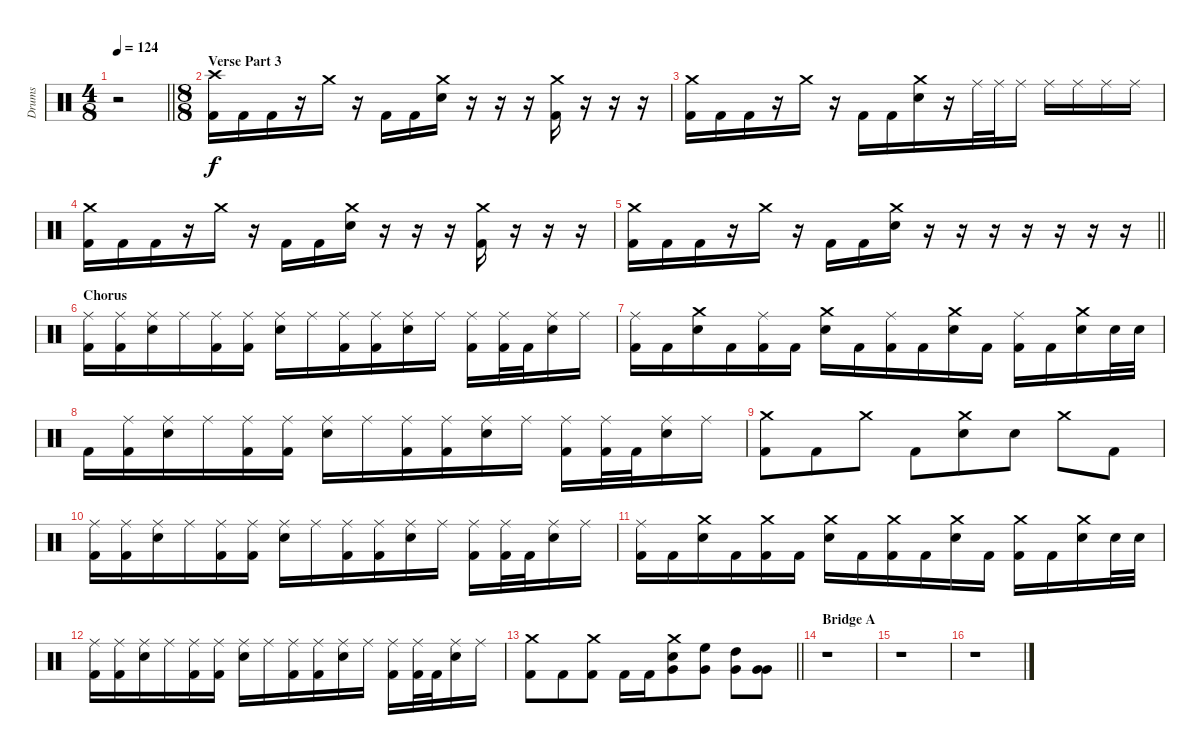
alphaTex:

\track ("Drums" "Drums") {instrument percussion}
\staff {score}
\articulation defaults
\ts (4 8)
\tempo 124
\clef neutral
\barLineRight lightlight
\ks c
r.2{dy f} |
\ts (8 8)
\section ("" "Verse Part 3")
("Crash high (hit)" "Kick (hit) 2").16 "Kick (hit) 2".16 "Kick (hit) 2".16 r.16 "Crash medium (hit)".16 r.16 "Kick (hit) 2".16 "Kick (hit) 2".16 ("Crash medium (hit)" "Electric Snare (hit)").16 r.16 r.16 r.16 ("Crash medium (hit)" "Kick (hit) 2").16 r.16 r.16 r.16 |
("Crash medium (hit)" "Kick (hit) 2").16 "Kick (hit) 2".16 "Kick (hit) 2".16 r.16 "Crash medium (hit)".16 r.16 "Kick (hit) 2".16 "Kick (hit) 2".16 ("Crash medium (hit)" "Electric Snare (hit)").16 r.16 "Ride (middle)".32 "Ride (middle)".32 "Ride (middle)".16 "Ride (middle)".16 "Ride (middle)".16 "Ride (middle)".16 "Ride (middle)".16 |
("Crash medium (hit)" "Kick (hit) 2").16 "Kick (hit) 2".16 "Kick (hit) 2".16 r.16 "Crash medium (hit)".16 r.16 "Kick (hit) 2".16 "Kick (hit) 2".16 ("Crash medium (hit)" "Electric Snare (hit)").16 r.16 r.16 r.16 ("Crash medium (hit)" "Kick (hit) 2").16 r.16 r.16 r.16 |
\barLineRight lightlight
("Crash medium (hit)" "Kick (hit) 2").16 "Kick (hit) 2".16 "Kick (hit) 2".16 r.16 "Crash medium (hit)".16 r.16 "Kick (hit) 2".16 "Kick (hit) 2".16 ("Crash medium (hit)" "Electric Snare (hit)").16 r.16 r.16 r.16 r.16 r.16 r.16 r.16 |
\section ("" "Chorus")
("Ride (middle)" "Kick (hit) 2").16 ("Ride (middle)" "Kick (hit) 2").16 ("Ride (middle)" "Electric Snare (hit)").16 "Ride (middle)".16 ("Ride (middle)" "Kick (hit) 2").16 ("Ride (middle)" "Kick (hit) 2").16 ("Ride (middle)" "Electric Snare (hit)").16 "Ride (middle)".16 ("Ride (middle)" "Kick (hit) 2").16 ("Ride (middle)" "Kick (hit) 2").16 ("Ride (middle)" "Electric Snare (hit)").16 "Ride (middle)".16 ("Ride (middle)" "Kick (hit) 2").16 ("Ride (middle)" "Kick (hit) 2").32 "Kick (hit) 2".32 ("Ride (middle)" "Electric Snare (hit)").16 "Ride (middle)".16 |
("Ride (middle)" "Kick (hit) 2").16 "Kick (hit) 2".16 ("Crash medium (hit)" "Electric Snare (hit)").16 "Kick (hit) 2".16 ("Ride (middle)" "Kick (hit) 2").16 "Kick (hit) 2".16 ("Crash medium (hit)" "Electric Snare (hit)").16 "Kick (hit) 2".16 ("Ride (middle)" "Kick (hit) 2").16 "Kick (hit) 2".16 ("Crash medium (hit)" "Electric Snare (hit)").16 "Kick (hit) 2".16 ("Ride (middle)" "Kick (hit) 2").16 "Kick (hit) 2".16 ("Crash medium (hit)" "Electric Snare (hit)").16 "Electric Snare (hit)".32 "Electric Snare (hit)".32 |
"Kick (hit) 2".16 ("Ride (middle)" "Kick (hit) 2").16 ("Ride (middle)" "Electric Snare (hit)").16 "Ride (middle)".16 ("Ride (middle)" "Kick (hit) 2").16 ("Ride (middle)" "Kick (hit) 2").16 ("Ride (middle)" "Electric Snare (hit)").16 "Ride (middle)".16 ("Ride (middle)" "Kick (hit) 2").16 ("Ride (middle)" "Kick (hit) 2").16 ("Ride (middle)" "Electric Snare (hit)").16 "Ride (middle)".16 ("Ride (middle)" "Kick (hit) 2").16 ("Ride (middle)" "Kick (hit) 2").32 "Kick (hit) 2".32 ("Ride (middle)" "Electric Snare (hit)").16 "Ride (middle)".16 |
("Crash medium (hit)" "Kick (hit) 2").8 "Kick (hit) 2".8 "Crash medium (hit)".8 "Kick (hit) 2".8 ("Crash medium (hit)" "Electric Snare (hit)").8 "Electric Snare (hit)".8 "Crash medium (hit)".8 "Kick (hit) 2".8 |
("Ride (middle)" "Kick (hit) 2").16 ("Ride (middle)" "Kick (hit) 2").16 ("Ride (middle)" "Electric Snare (hit)").16 "Ride (middle)".16 ("Ride (middle)" "Kick (hit) 2").16 ("Ride (middle)" "Kick (hit) 2").16 ("Ride (middle)" "Electric Snare (hit)").16 "Ride (middle)".16 ("Ride (middle)" "Kick (hit) 2").16 ("Ride (middle)" "Kick (hit) 2").16 ("Ride (middle)" "Electric Snare (hit)").16 "Ride (middle)".16 ("Ride (middle)" "Kick (hit) 2").16 ("Ride (middle)" "Kick (hit) 2").32 "Kick (hit) 2".32 ("Ride (middle)" "Electric Snare (hit)").16 "Ride (middle)".16 |
("Ride (middle)" "Kick (hit) 2").16 "Kick (hit) 2".16 ("Crash medium (hit)" "Electric Snare (hit)").16 "Kick (hit) 2".16 ("Crash medium (hit)" "Kick (hit) 2").16 "Kick (hit) 2".16 ("Crash medium (hit)" "Electric Snare (hit)").16 "Kick (hit) 2".16 ("Crash medium (hit)" "Kick (hit) 2").16 "Kick (hit) 2".16 ("Crash medium (hit)" "Electric Snare (hit)").16 "Kick (hit) 2".16 ("Crash medium (hit)" "Kick (hit) 2").16 "Kick (hit) 2".16 ("Crash medium (hit)" "Electric Snare (hit)").16 "Electric Snare (hit)".32 "Electric Snare (hit)".32 |
("Ride (middle)" "Kick (hit) 2").16 ("Ride (middle)" "Kick (hit) 2").16 ("Ride (middle)" "Electric Snare (hit)").16 "Ride (middle)".16 ("Ride (middle)" "Kick (hit) 2").16 ("Ride (middle)" "Kick (hit) 2").16 ("Ride (middle)" "Electric Snare (hit)").16 "Ride (middle)".16 ("Ride (middle)" "Kick (hit) 2").16 ("Ride (middle)" "Kick (hit) 2").16 ("Ride (middle)" "Electric Snare (hit)").16 "Ride (middle)".16 ("Ride (middle)" "Kick (hit) 2").16 ("Ride (middle)" "Kick (hit) 2").32 "Kick (hit) 2".32 ("Ride (middle)" "Electric Snare (hit)").16 "Ride (middle)".16 |
\barLineRight lightlight
("Crash medium (hit)" "Kick (hit) 2").8 "Kick (hit) 2".8 ("Crash medium (hit)" "Kick (hit) 2").8 "Kick (hit) 2".16 "Kick (hit) 2".16 ("Crash medium (hit)" "Very Low Tom (hit)" "Electric Snare (hit)").8 ("Very Low Tom (hit)" "High Floor Tom (hit)").8 ("Very Low Tom (hit)" "High Tom (hit)").8 ("Very Low Tom (hit)" "Very Low Tom (hit)").8 |
\section ("" "Bridge A")
r.1 |
r.1 |
r.1
